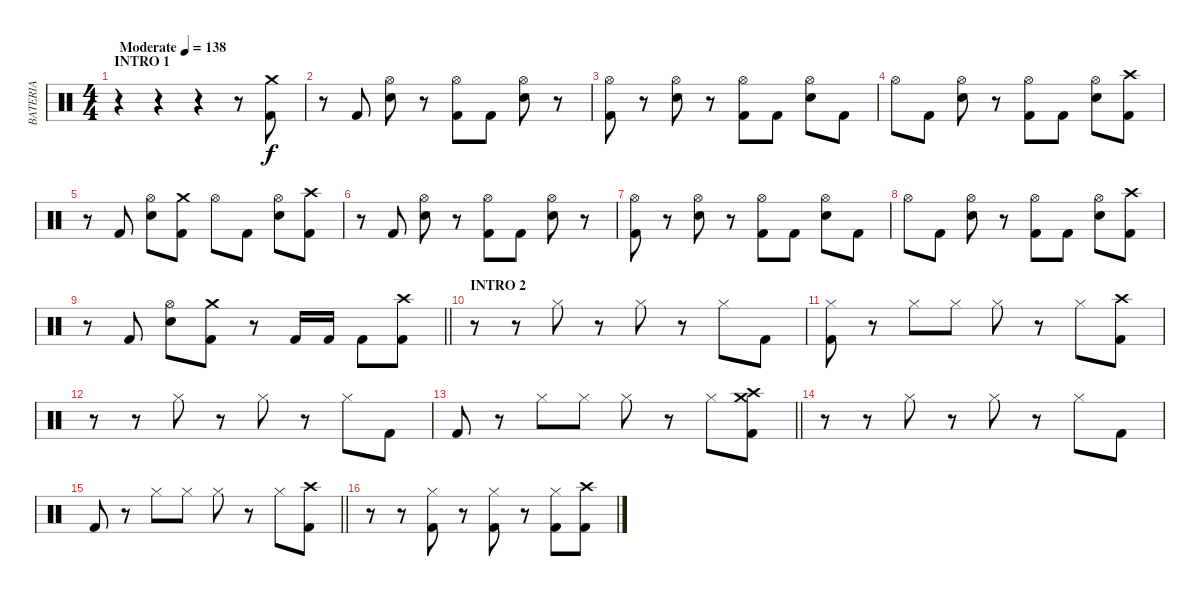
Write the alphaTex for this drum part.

\track ("BATERIA" "BATERIA") {instrument percussion}
\staff {score}
\articulation defaults
\ts (4 4)
\section ("" "INTRO 1")
\tempo (138 "Moderate")
\clef neutral
\ks c
r.4{dy f} r.4 r.4 r.8 ("Kick (hit) 2" "Crash medium (hit)").8 |
r.8 "Kick (hit) 2".8 ("Electric Snare (hit)" "Hi-Hat (open)").8 r.8 ("Kick (hit) 2" "Hi-Hat (open)").8 "Kick (hit) 2".8 ("Electric Snare (hit)" "Hi-Hat (open)").8 r.8 |
("Kick (hit) 2" "Hi-Hat (open)").8 r.8 ("Electric Snare (hit)" "Hi-Hat (open)").8 r.8 ("Kick (hit) 2" "Hi-Hat (open)").8 "Kick (hit) 2".8 ("Electric Snare (hit)" "Hi-Hat (open)").8 "Kick (hit) 2".8 |
"Hi-Hat (open)".8 "Kick (hit) 2".8 ("Electric Snare (hit)" "Hi-Hat (open)").8 r.8 ("Kick (hit) 2" "Hi-Hat (open)").8 "Kick (hit) 2".8 ("Electric Snare (hit)" "Hi-Hat (open)").8 ("Kick (hit) 2" "Crash high (hit)").8 |
r.8 "Kick (hit) 2".8 ("Electric Snare (hit)" "Hi-Hat (open)").8 ("Kick (hit) 2" "Crash medium (hit)").8 "Hi-Hat (open)".8 "Kick (hit) 2".8 ("Electric Snare (hit)" "Hi-Hat (open)").8 ("Kick (hit) 2" "Crash high (hit)").8 |
r.8 "Kick (hit) 2".8 ("Electric Snare (hit)" "Hi-Hat (open)").8 r.8 ("Kick (hit) 2" "Hi-Hat (open)").8 "Kick (hit) 2".8 ("Electric Snare (hit)" "Hi-Hat (open)").8 r.8 |
("Kick (hit) 2" "Hi-Hat (open)").8 r.8 ("Electric Snare (hit)" "Hi-Hat (open)").8 r.8 ("Kick (hit) 2" "Hi-Hat (open)").8 "Kick (hit) 2".8 ("Electric Snare (hit)" "Hi-Hat (open)").8 "Kick (hit) 2".8 |
"Hi-Hat (open)".8 "Kick (hit) 2".8 ("Electric Snare (hit)" "Hi-Hat (open)").8 r.8 ("Kick (hit) 2" "Hi-Hat (open)").8 "Kick (hit) 2".8 ("Electric Snare (hit)" "Hi-Hat (open)").8 ("Kick (hit) 2" "Crash high (hit)").8 |
\barLineRight lightlight
r.8 "Kick (hit) 2".8 ("Electric Snare (hit)" "Hi-Hat (open)").8 ("Kick (hit) 2" "Crash medium (hit)").8 r.8 "Kick (hit) 2".16 "Kick (hit) 2".16 "Kick (hit) 2".8 ("Kick (hit) 2" "Crash high (hit)").8 |
\section ("" "INTRO 2")
r.8 r.8 "Hi-Hat (closed)".8 r.8 "Hi-Hat (closed)".8 r.8 "Hi-Hat (closed)".8 "Kick (hit) 2".8 |
("Kick (hit) 2" "Hi-Hat (closed)").8 r.8 "Hi-Hat (closed)".8 "Hi-Hat (closed)".8 "Hi-Hat (closed)".8 r.8 "Hi-Hat (closed)".8 ("Kick (hit) 2" "Crash high (hit)").8 |
r.8 r.8 "Hi-Hat (closed)".8 r.8 "Hi-Hat (closed)".8 r.8 "Hi-Hat (closed)".8 "Kick (hit) 2".8 |
\barLineRight lightlight "Kick (hit) 2".8
r.8 "Hi-Hat (closed)".8 "Hi-Hat (closed)".8 "Hi-Hat (closed)".8 r.8 "Hi-Hat (closed)".8 ("Kick (hit) 2" "Crash medium (hit)" "Crash high (hit)").8 |
r.8 r.8 "Hi-Hat (closed)".8 r.8 "Hi-Hat (closed)".8 r.8 "Hi-Hat (closed)".8 "Kick (hit) 2".8 |
\barLineRight lightlight "Kick (hit) 2".8
r.8 "Hi-Hat (closed)".8 "Hi-Hat (closed)".8 "Hi-Hat (closed)".8 r.8 "Hi-Hat (closed)".8 ("Kick (hit) 2" "Crash high (hit)").8 |
r.8 r.8 ("Kick (hit) 2" "Hi-Hat (closed)").8 r.8 ("Kick (hit) 2" "Hi-Hat (closed)").8 r.8 ("Kick (hit) 2" "Hi-Hat (closed)").8 ("Kick (hit) 2" "Crash high (hit)").8
